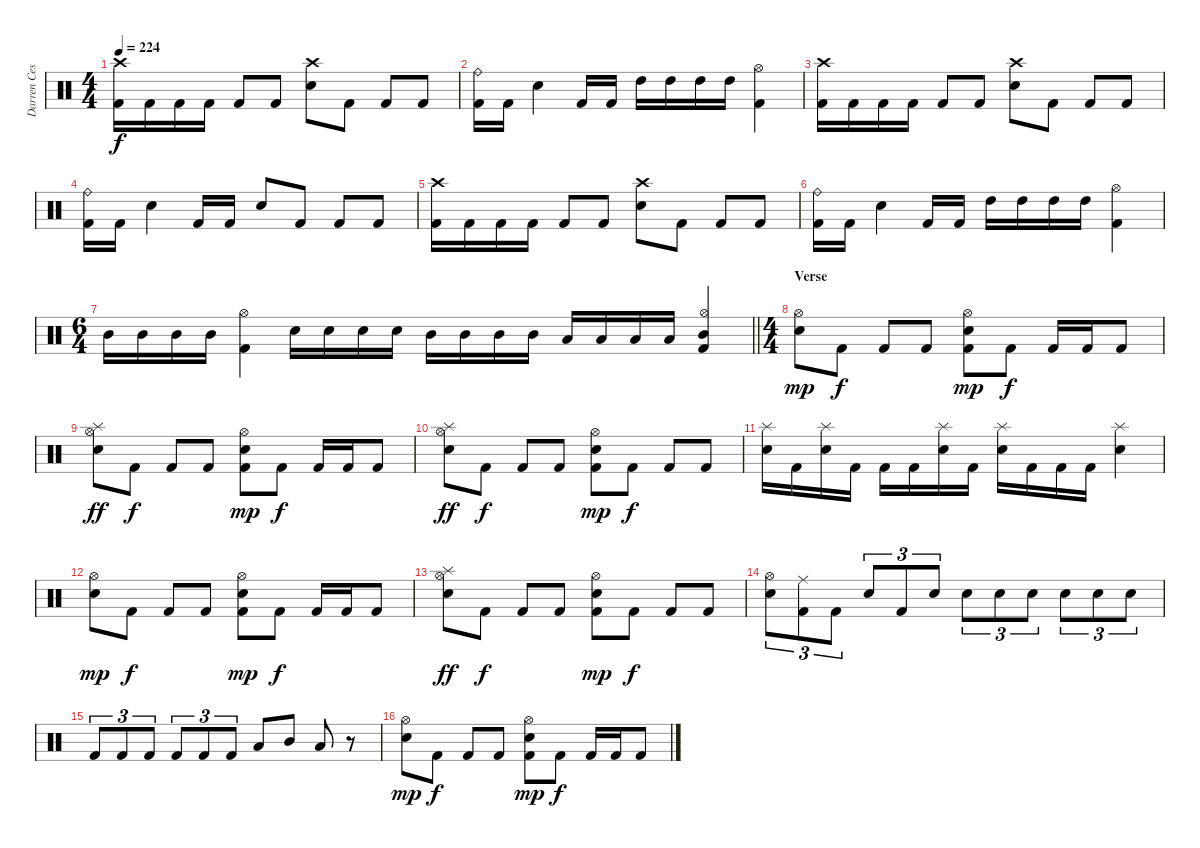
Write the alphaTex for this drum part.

\track ("Darren Cesca" "Darren Ces") {instrument percussion}
\staff {score}
\articulation defaults
\ts (4 4)
\tempo 224
\clef neutral
\ks c
("Crash high (hit)" "Kick (hit) 2").16{dy f} "Kick (hit) 2".16 "Kick (hit) 2".16 "Kick (hit) 2".16 "Kick (hit) 2".8 "Kick (hit) 2".8 ("Crash high (hit)" "Electric Snare (hit)").8 "Kick (hit) 2".8 "Kick (hit) 2".8 "Kick (hit) 2".8 |
("Ride (bell)" "Kick (hit) 2").16 "Kick (hit) 2".16 "Electric Snare (hit)".4 "Kick (hit) 2".16 "Kick (hit) 2".16 "High Tom (hit)".16 "High Tom (hit)".16 "High Tom (hit)".16 "High Tom (hit)".16 ("Hi-Hat (open)" "Kick (hit) 2").4 |
("Crash high (hit)" "Kick (hit) 2").16 "Kick (hit) 2".16 "Kick (hit) 2".16 "Kick (hit) 2".16 "Kick (hit) 2".8 "Kick (hit) 2".8 ("Crash high (hit)" "Electric Snare (hit)").8 "Kick (hit) 2".8 "Kick (hit) 2".8 "Kick (hit) 2".8 |
("Ride (bell)" "Kick (hit) 2").16 "Kick (hit) 2".16 "Electric Snare (hit)".4 "Kick (hit) 2".16 "Kick (hit) 2".16 "Electric Snare (hit)".8 "Kick (hit) 2".8 "Kick (hit) 2".8 "Kick (hit) 2".8 |
("Crash high (hit)" "Kick (hit) 2").16 "Kick (hit) 2".16 "Kick (hit) 2".16 "Kick (hit) 2".16 "Kick (hit) 2".8 "Kick (hit) 2".8 ("Crash high (hit)" "Electric Snare (hit)").8 "Kick (hit) 2".8 "Kick (hit) 2".8 "Kick (hit) 2".8 |
("Ride (bell)" "Kick (hit) 2").16 "Kick (hit) 2".16 "Electric Snare (hit)".4 "Kick (hit) 2".16 "Kick (hit) 2".16 "High Tom (hit)".16 "High Tom (hit)".16 "High Tom (hit)".16 "High Tom (hit)".16 ("Hi-Hat (open)" "Kick (hit) 2").4 |
\ts (6 4)
\barLineRight lightlight "Mid Tom (hit)".16 "Mid Tom (hit)".16 "Mid Tom (hit)".16 "Mid Tom (hit)".16
("Hi-Hat (open)" "Kick (hit) 2").4 "Electric Snare (hit)".16 "Electric Snare (hit)".16 "Electric Snare (hit)".16 "Electric Snare (hit)".16 "Mid Tom (hit)".16 "Mid Tom (hit)".16 "Mid Tom (hit)".16 "Mid Tom (hit)".16 "Low Tom (hit)".16 "Low Tom (hit)".16 "Low Tom (hit)".16 "Low Tom (hit)".16 ("Hi-Hat (open)" "Mid Tom (hit)" "Kick (hit) 2").4 |
\ts (4 4)
\section ("" "Verse")
("Hi-Hat (open)" "Electric Snare (hit)").8{dy mp} "Kick (hit) 2".8{dy f} "Kick (hit) 2".8 "Kick (hit) 2".8 ("Hi-Hat (open)" "Electric Snare (hit)" "Kick (hit) 2").8{dy mp} "Kick (hit) 2".8{dy f} "Kick (hit) 2".16 "Kick (hit) 2".16 "Kick (hit) 2".8 |
("Hi-Hat (open)" "Splash (hit)" "Electric Snare (hit)").8{dy ff} "Kick (hit) 2".8{dy f} "Kick (hit) 2".8 "Kick (hit) 2".8 ("Hi-Hat (open)" "Electric Snare (hit)" "Kick (hit) 2").8{dy mp} "Kick (hit) 2".8{dy f} "Kick (hit) 2".16 "Kick (hit) 2".16 "Kick (hit) 2".8 |
("Hi-Hat (open)" "Splash (hit)" "Electric Snare (hit)").8{dy ff} "Kick (hit) 2".8{dy f} "Kick (hit) 2".8 "Kick (hit) 2".8 ("Hi-Hat (open)" "Electric Snare (hit)" "Kick (hit) 2").8{dy mp} "Kick (hit) 2".8{dy f} "Kick (hit) 2".8 "Kick (hit) 2".8 |
("Splash (hit)" "Electric Snare (hit)").16 "Kick (hit) 2".16 ("Splash (hit)" "Electric Snare (hit)").16 "Kick (hit) 2".16 "Kick (hit) 2".16 "Kick (hit) 2".16 ("Splash (hit)" "Electric Snare (hit)").16 "Kick (hit) 2".16 ("Splash (hit)" "Electric Snare (hit)").16 "Kick (hit) 2".16 "Kick (hit) 2".16 "Kick (hit) 2".16 ("Splash (hit)" "Electric Snare (hit)").4 |
("Hi-Hat (open)" "Electric Snare (hit)").8{dy mp} "Kick (hit) 2".8{dy f} "Kick (hit) 2".8 "Kick (hit) 2".8 ("Hi-Hat (open)" "Electric Snare (hit)" "Kick (hit) 2").8{dy mp} "Kick (hit) 2".8{dy f} "Kick (hit) 2".16 "Kick (hit) 2".16 "Kick (hit) 2".8 |
("Hi-Hat (open)" "Splash (hit)" "Electric Snare (hit)").8{dy ff} "Kick (hit) 2".8{dy f} "Kick (hit) 2".8 "Kick (hit) 2".8 ("Hi-Hat (open)" "Electric Snare (hit)" "Kick (hit) 2").8{dy mp} "Kick (hit) 2".8{dy f} "Kick (hit) 2".8 "Kick (hit) 2".8 |
("Hi-Hat (open)" "Electric Snare (hit)").8{tu (3 2)} ("Ride (middle)" "Kick (hit) 2").8{tu (3 2)} "Kick (hit) 2".8{tu (3 2)} "Electric Snare (hit)".8{tu (3 2)} "Kick (hit) 2".8{tu (3 2)} "Electric Snare (hit)".8{tu (3 2)} "Electric Snare (hit)".8{tu (3 2)} "Electric Snare (hit)".8{tu (3 2)} "Electric Snare (hit)".8{tu (3 2)} "Electric Snare (hit)".8{tu (3 2)} "Electric Snare (hit)".8{tu (3 2)} "Electric Snare (hit)".8{tu (3 2)} |
"Kick (hit) 2".8{tu (3 2)} "Kick (hit) 2".8{tu (3 2)} "Kick (hit) 2".8{tu (3 2)} "Kick (hit) 2".8{tu (3 2)} "Kick (hit) 2".8{tu (3 2)} "Kick (hit) 2".8{tu (3 2)} "Low Tom (hit)".8 "Mid Tom (hit)".8 "Low Tom (hit)".8 r.8 |
("Hi-Hat (open)" "Electric Snare (hit)").8{dy mp} "Kick (hit) 2".8{dy f} "Kick (hit) 2".8 "Kick (hit) 2".8 ("Hi-Hat (open)" "Electric Snare (hit)" "Kick (hit) 2").8{dy mp} "Kick (hit) 2".8{dy f} "Kick (hit) 2".16 "Kick (hit) 2".16 "Kick (hit) 2".8
